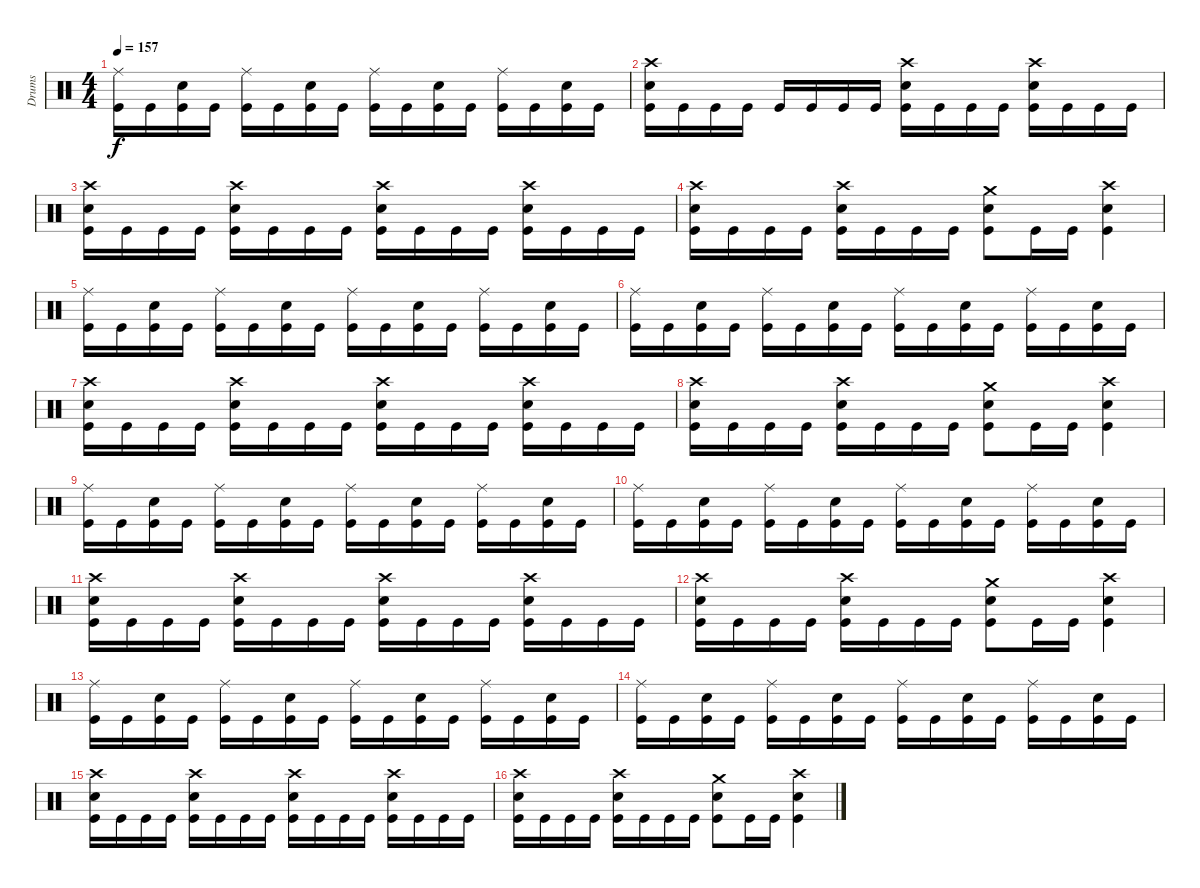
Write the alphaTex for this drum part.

\track ("Drums" "Drums") {instrument percussion}
\staff {score}
\articulation defaults
\ts (4 4)
\tempo 157
\clef neutral
\ks c
("Ride (middle)" "Kick (hit)").16{dy f} "Kick (hit)".16 ("Snare (hit) 2" "Kick (hit)").16 "Kick (hit)".16 ("Ride (middle)" "Kick (hit)").16 "Kick (hit)".16 ("Snare (hit) 2" "Kick (hit)").16 "Kick (hit)".16 ("Ride (middle)" "Kick (hit)").16 "Kick (hit)".16 ("Snare (hit) 2" "Kick (hit)").16 "Kick (hit)".16 ("Ride (middle)" "Kick (hit)").16 "Kick (hit)".16 ("Snare (hit) 2" "Kick (hit)").16 "Kick (hit)".16 |
("Snare (hit) 2" "Crash high (hit)" "Kick (hit)").16 "Kick (hit)".16 "Kick (hit)".16 "Kick (hit)".16 "Kick (hit)".16 "Kick (hit)".16 "Kick (hit)".16 "Kick (hit)".16 ("Snare (hit) 2" "Crash high (hit)" "Kick (hit)").16 "Kick (hit)".16 "Kick (hit)".16 "Kick (hit)".16 ("Snare (hit) 2" "Crash high (hit)" "Kick (hit)").16 "Kick (hit)".16 "Kick (hit)".16 "Kick (hit)".16 |
("Snare (hit) 2" "Crash high (hit)" "Kick (hit)").16 "Kick (hit)".16 "Kick (hit)".16 "Kick (hit)".16 ("Snare (hit) 2" "Crash high (hit)" "Kick (hit)").16 "Kick (hit)".16 "Kick (hit)".16 "Kick (hit)".16 ("Snare (hit) 2" "Crash high (hit)" "Kick (hit)").16 "Kick (hit)".16 "Kick (hit)".16 "Kick (hit)".16 ("Snare (hit) 2" "Crash high (hit)" "Kick (hit)").16 "Kick (hit)".16 "Kick (hit)".16 "Kick (hit)".16 |
("Snare (hit) 2" "Crash high (hit)" "Kick (hit)").16 "Kick (hit)".16 "Kick (hit)".16 "Kick (hit)".16 ("Snare (hit) 2" "Crash high (hit)" "Kick (hit)").16 "Kick (hit)".16 "Kick (hit)".16 "Kick (hit)".16 ("Snare (hit) 2" "Crash medium (hit)" "Kick (hit)").8 "Kick (hit)".16 "Kick (hit)".16 ("Snare (hit) 2" "Crash high (hit)" "Kick (hit)").4 |
("Ride (middle)" "Kick (hit)").16 "Kick (hit)".16 ("Snare (hit) 2" "Kick (hit)").16 "Kick (hit)".16 ("Ride (middle)" "Kick (hit)").16 "Kick (hit)".16 ("Snare (hit) 2" "Kick (hit)").16 "Kick (hit)".16 ("Ride (middle)" "Kick (hit)").16 "Kick (hit)".16 ("Snare (hit) 2" "Kick (hit)").16 "Kick (hit)".16 ("Ride (middle)" "Kick (hit)").16 "Kick (hit)".16 ("Snare (hit) 2" "Kick (hit)").16 "Kick (hit)".16 |
("Ride (middle)" "Kick (hit)").16 "Kick (hit)".16 ("Snare (hit) 2" "Kick (hit)").16 "Kick (hit)".16 ("Ride (middle)" "Kick (hit)").16 "Kick (hit)".16 ("Snare (hit) 2" "Kick (hit)").16 "Kick (hit)".16 ("Ride (middle)" "Kick (hit)").16 "Kick (hit)".16 ("Snare (hit) 2" "Kick (hit)").16 "Kick (hit)".16 ("Ride (middle)" "Kick (hit)").16 "Kick (hit)".16 ("Snare (hit) 2" "Kick (hit)").16 "Kick (hit)".16 |
("Snare (hit) 2" "Crash high (hit)" "Kick (hit)").16 "Kick (hit)".16 "Kick (hit)".16 "Kick (hit)".16 ("Snare (hit) 2" "Crash high (hit)" "Kick (hit)").16 "Kick (hit)".16 "Kick (hit)".16 "Kick (hit)".16 ("Snare (hit) 2" "Crash high (hit)" "Kick (hit)").16 "Kick (hit)".16 "Kick (hit)".16 "Kick (hit)".16 ("Snare (hit) 2" "Crash high (hit)" "Kick (hit)").16 "Kick (hit)".16 "Kick (hit)".16 "Kick (hit)".16 |
("Snare (hit) 2" "Crash high (hit)" "Kick (hit)").16 "Kick (hit)".16 "Kick (hit)".16 "Kick (hit)".16 ("Snare (hit) 2" "Crash high (hit)" "Kick (hit)").16 "Kick (hit)".16 "Kick (hit)".16 "Kick (hit)".16 ("Snare (hit) 2" "Crash medium (hit)" "Kick (hit)").8 "Kick (hit)".16 "Kick (hit)".16 ("Snare (hit) 2" "Crash high (hit)" "Kick (hit)").4 |
("Ride (middle)" "Kick (hit)").16 "Kick (hit)".16 ("Snare (hit) 2" "Kick (hit)").16 "Kick (hit)".16 ("Ride (middle)" "Kick (hit)").16 "Kick (hit)".16 ("Snare (hit) 2" "Kick (hit)").16 "Kick (hit)".16 ("Ride (middle)" "Kick (hit)").16 "Kick (hit)".16 ("Snare (hit) 2" "Kick (hit)").16 "Kick (hit)".16 ("Ride (middle)" "Kick (hit)").16 "Kick (hit)".16 ("Snare (hit) 2" "Kick (hit)").16 "Kick (hit)".16 |
("Ride (middle)" "Kick (hit)").16 "Kick (hit)".16 ("Snare (hit) 2" "Kick (hit)").16 "Kick (hit)".16 ("Ride (middle)" "Kick (hit)").16 "Kick (hit)".16 ("Snare (hit) 2" "Kick (hit)").16 "Kick (hit)".16 ("Ride (middle)" "Kick (hit)").16 "Kick (hit)".16 ("Snare (hit) 2" "Kick (hit)").16 "Kick (hit)".16 ("Ride (middle)" "Kick (hit)").16 "Kick (hit)".16 ("Snare (hit) 2" "Kick (hit)").16 "Kick (hit)".16 |
("Snare (hit) 2" "Crash high (hit)" "Kick (hit)").16 "Kick (hit)".16 "Kick (hit)".16 "Kick (hit)".16 ("Snare (hit) 2" "Crash high (hit)" "Kick (hit)").16 "Kick (hit)".16 "Kick (hit)".16 "Kick (hit)".16 ("Snare (hit) 2" "Crash high (hit)" "Kick (hit)").16 "Kick (hit)".16 "Kick (hit)".16 "Kick (hit)".16 ("Snare (hit) 2" "Crash high (hit)" "Kick (hit)").16 "Kick (hit)".16 "Kick (hit)".16 "Kick (hit)".16 |
("Snare (hit) 2" "Crash high (hit)" "Kick (hit)").16 "Kick (hit)".16 "Kick (hit)".16 "Kick (hit)".16 ("Snare (hit) 2" "Crash high (hit)" "Kick (hit)").16 "Kick (hit)".16 "Kick (hit)".16 "Kick (hit)".16 ("Snare (hit) 2" "Crash medium (hit)" "Kick (hit)").8 "Kick (hit)".16 "Kick (hit)".16 ("Snare (hit) 2" "Crash high (hit)" "Kick (hit)").4 |
("Ride (middle)" "Kick (hit)").16 "Kick (hit)".16 ("Snare (hit) 2" "Kick (hit)").16 "Kick (hit)".16 ("Ride (middle)" "Kick (hit)").16 "Kick (hit)".16 ("Snare (hit) 2" "Kick (hit)").16 "Kick (hit)".16 ("Ride (middle)" "Kick (hit)").16 "Kick (hit)".16 ("Snare (hit) 2" "Kick (hit)").16 "Kick (hit)".16 ("Ride (middle)" "Kick (hit)").16 "Kick (hit)".16 ("Snare (hit) 2" "Kick (hit)").16 "Kick (hit)".16 |
("Ride (middle)" "Kick (hit)").16 "Kick (hit)".16 ("Snare (hit) 2" "Kick (hit)").16 "Kick (hit)".16 ("Ride (middle)" "Kick (hit)").16 "Kick (hit)".16 ("Snare (hit) 2" "Kick (hit)").16 "Kick (hit)".16 ("Ride (middle)" "Kick (hit)").16 "Kick (hit)".16 ("Snare (hit) 2" "Kick (hit)").16 "Kick (hit)".16 ("Ride (middle)" "Kick (hit)").16 "Kick (hit)".16 ("Snare (hit) 2" "Kick (hit)").16 "Kick (hit)".16 |
("Snare (hit) 2" "Crash high (hit)" "Kick (hit)").16 "Kick (hit)".16 "Kick (hit)".16 "Kick (hit)".16 ("Snare (hit) 2" "Crash high (hit)" "Kick (hit)").16 "Kick (hit)".16 "Kick (hit)".16 "Kick (hit)".16 ("Snare (hit) 2" "Crash high (hit)" "Kick (hit)").16 "Kick (hit)".16 "Kick (hit)".16 "Kick (hit)".16 ("Snare (hit) 2" "Crash high (hit)" "Kick (hit)").16 "Kick (hit)".16 "Kick (hit)".16 "Kick (hit)".16 |
("Snare (hit) 2" "Crash high (hit)" "Kick (hit)").16 "Kick (hit)".16 "Kick (hit)".16 "Kick (hit)".16 ("Snare (hit) 2" "Crash high (hit)" "Kick (hit)").16 "Kick (hit)".16 "Kick (hit)".16 "Kick (hit)".16 ("Snare (hit) 2" "Crash medium (hit)" "Kick (hit)").8 "Kick (hit)".16 "Kick (hit)".16 ("Snare (hit) 2" "Crash high (hit)" "Kick (hit)").4
